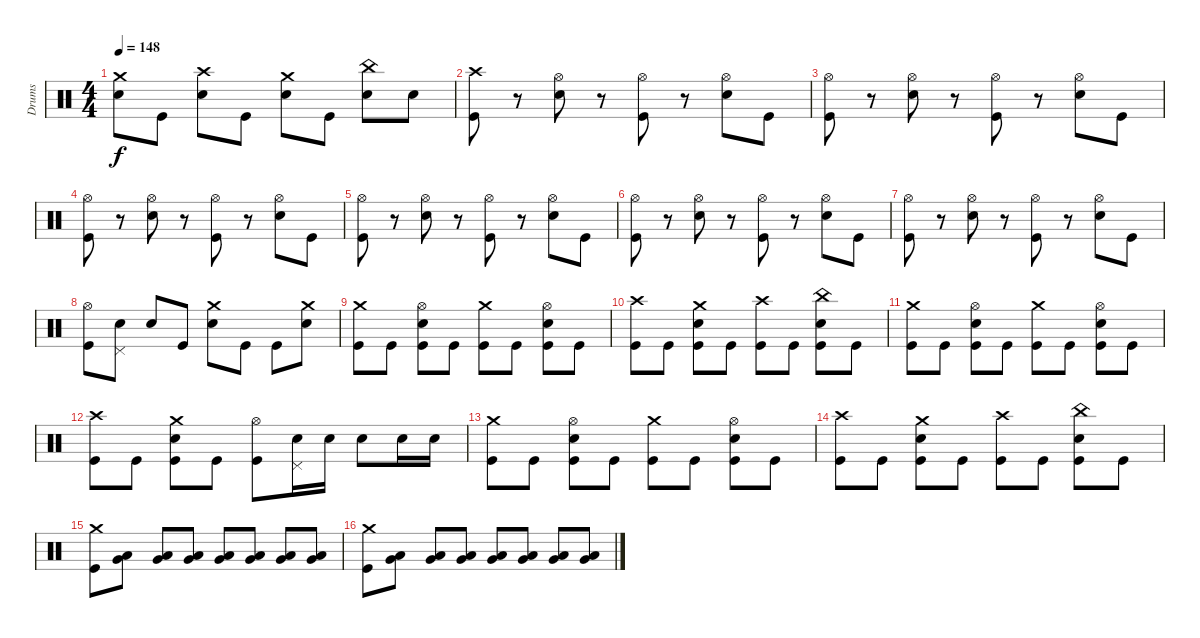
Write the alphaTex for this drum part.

\track ("Drums" "Drums") {instrument percussion}
\staff {score}
\articulation defaults
\ts (4 4)
\tempo 148
\clef neutral
\ks c
("Crash medium (hit)" "Electric Snare (hit)").8{dy f} "Kick (hit)".8 ("Crash high (hit)" "Electric Snare (hit)").8 "Kick (hit)".8 ("Crash medium (hit)" "Electric Snare (hit)").8 "Kick (hit)".8 ("China (hit)" "Electric Snare (hit)").8 "Electric Snare (hit)".8 |
("Crash high (hit)" "Kick (hit)").8 r.8 ("Hi-Hat (open)" "Electric Snare (hit)").8 r.8 ("Hi-Hat (open)" "Kick (hit)").8 r.8 ("Hi-Hat (open)" "Electric Snare (hit)").8 "Kick (hit)".8 |
("Hi-Hat (open)" "Kick (hit)").8 r.8 ("Hi-Hat (open)" "Electric Snare (hit)").8 r.8 ("Hi-Hat (open)" "Kick (hit)").8 r.8 ("Hi-Hat (open)" "Electric Snare (hit)").8 "Kick (hit)".8 |
("Hi-Hat (open)" "Kick (hit)").8 r.8 ("Hi-Hat (open)" "Electric Snare (hit)").8 r.8 ("Hi-Hat (open)" "Kick (hit)").8 r.8 ("Hi-Hat (open)" "Electric Snare (hit)").8 "Kick (hit)".8 |
("Hi-Hat (open)" "Kick (hit)").8 r.8 ("Hi-Hat (open)" "Electric Snare (hit)").8 r.8 ("Hi-Hat (open)" "Kick (hit)").8 r.8 ("Hi-Hat (open)" "Electric Snare (hit)").8 "Kick (hit)".8 |
("Hi-Hat (open)" "Kick (hit)").8 r.8 ("Hi-Hat (open)" "Electric Snare (hit)").8 r.8 ("Hi-Hat (open)" "Kick (hit)").8 r.8 ("Hi-Hat (open)" "Electric Snare (hit)").8 "Kick (hit)".8 |
("Hi-Hat (open)" "Kick (hit)").8 r.8 ("Hi-Hat (open)" "Electric Snare (hit)").8 r.8 ("Hi-Hat (open)" "Kick (hit)").8 r.8 ("Hi-Hat (open)" "Electric Snare (hit)").8 "Kick (hit)".8 |
("Hi-Hat (open)" "Kick (hit)").8 ("Pedal Hi-Hat (hit)" "Electric Snare (hit)").8 "Electric Snare (hit)".8 "Kick (hit)".8 ("Crash medium (hit)" "Electric Snare (hit)").8 "Kick (hit)".8 "Kick (hit)".8 ("Crash medium (hit)" "Electric Snare (hit)").8 |
("Crash medium (hit)" "Kick (hit)").8 "Kick (hit)".8 ("Hi-Hat (open)" "Electric Snare (hit)" "Kick (hit)").8 "Kick (hit)".8 ("Crash medium (hit)" "Kick (hit)").8 "Kick (hit)".8 ("Hi-Hat (open)" "Electric Snare (hit)" "Kick (hit)").8 "Kick (hit)".8 |
("Crash high (hit)" "Kick (hit)").8 "Kick (hit)".8 ("Crash medium (hit)" "Electric Snare (hit)" "Kick (hit)").8 "Kick (hit)".8 ("Crash high (hit)" "Kick (hit)").8 "Kick (hit)".8 ("China (hit)" "Electric Snare (hit)" "Kick (hit)").8 "Kick (hit)".8 |
("Crash medium (hit)" "Kick (hit)").8 "Kick (hit)".8 ("Hi-Hat (open)" "Electric Snare (hit)" "Kick (hit)").8 "Kick (hit)".8 ("Crash medium (hit)" "Kick (hit)").8 "Kick (hit)".8 ("Hi-Hat (open)" "Electric Snare (hit)" "Kick (hit)").8 "Kick (hit)".8 |
("Crash high (hit)" "Kick (hit)").8 "Kick (hit)".8 ("Crash medium (hit)" "Electric Snare (hit)" "Kick (hit)").8 "Kick (hit)".8 ("Hi-Hat (open)" "Kick (hit)").8 ("Pedal Hi-Hat (hit)" "Electric Snare (hit)").16 "Electric Snare (hit)".16 "Electric Snare (hit)".8 "Electric Snare (hit)".16 "Electric Snare (hit)".16 |
("Crash medium (hit)" "Kick (hit)").8 "Kick (hit)".8 ("Hi-Hat (open)" "Electric Snare (hit)" "Kick (hit)").8 "Kick (hit)".8 ("Crash medium (hit)" "Kick (hit)").8 "Kick (hit)".8 ("Hi-Hat (open)" "Electric Snare (hit)" "Kick (hit)").8 "Kick (hit)".8 |
("Crash high (hit)" "Kick (hit)").8 "Kick (hit)".8 ("Crash medium (hit)" "Electric Snare (hit)" "Kick (hit)").8 "Kick (hit)".8 ("Crash high (hit)" "Kick (hit)").8 "Kick (hit)".8 ("China (hit)" "Electric Snare (hit)" "Kick (hit)").8 "Kick (hit)".8 |
("Crash medium (hit)" "Kick (hit)").8 ("Low Tom (hit)" "Very Low Tom (hit)").8 ("Low Tom (hit)" "Very Low Tom (hit)").8 ("Low Tom (hit)" "Very Low Tom (hit)").8 ("Low Tom (hit)" "Very Low Tom (hit)").8 ("Low Tom (hit)" "Very Low Tom (hit)").8 ("Low Tom (hit)" "Very Low Tom (hit)").8 ("Low Tom (hit)" "Very Low Tom (hit)").8 |
("Crash medium (hit)" "Kick (hit)").8 ("Low Tom (hit)" "Very Low Tom (hit)").8 ("Low Tom (hit)" "Very Low Tom (hit)").8 ("Low Tom (hit)" "Very Low Tom (hit)").8 ("Low Tom (hit)" "Very Low Tom (hit)").8 ("Low Tom (hit)" "Very Low Tom (hit)").8 ("Low Tom (hit)" "Very Low Tom (hit)").8 ("Low Tom (hit)" "Very Low Tom (hit)").8
